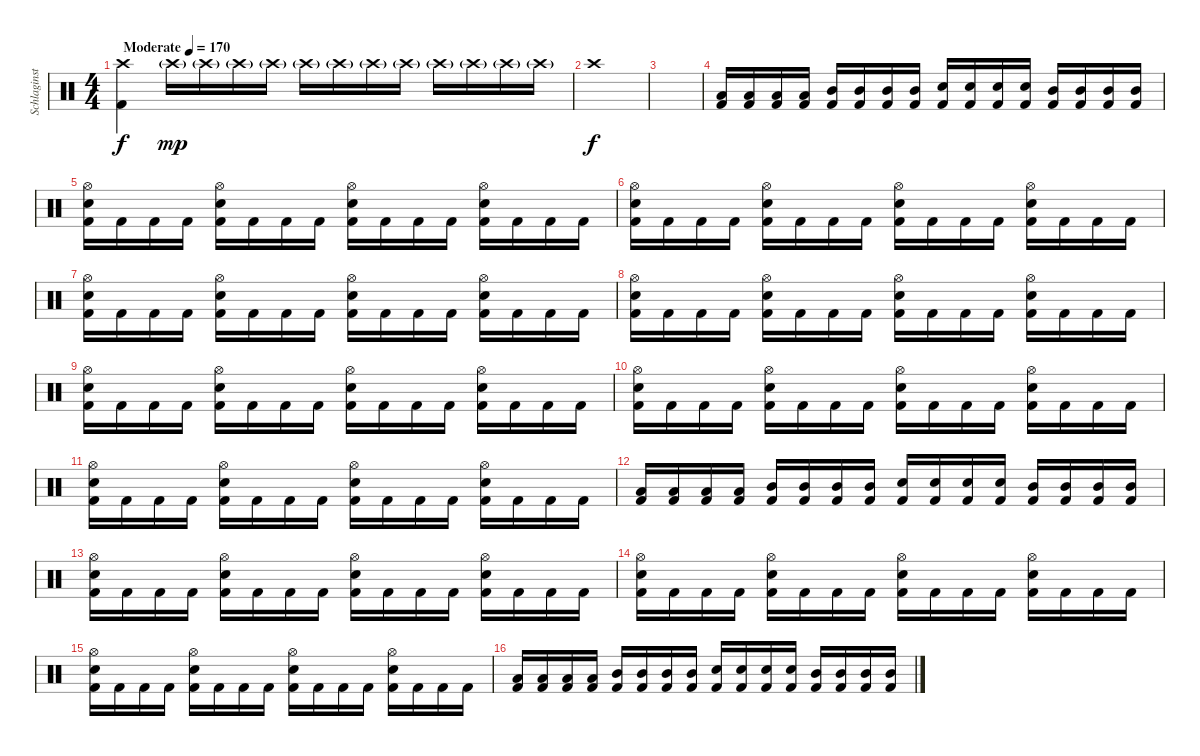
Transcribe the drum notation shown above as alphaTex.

\track ("Schlaginstrumente - Auswahl" "Schlaginst") {instrument percussion}
\staff {score}
\articulation defaults
\ts (4 4)
\tempo (170 "Moderate")
\clef neutral
\ks c
("Crash high (hit)" "Kick (hit) 2").4{dy f} "Crash high (hit)"{g}.16{dy mp} "Crash high (hit)"{g}.16 "Crash high (hit)"{g}.16 "Crash high (hit)"{g}.16 "Crash high (hit)"{g}.16 "Crash high (hit)"{g}.16 "Crash high (hit)"{g}.16 "Crash high (hit)"{g}.16 "Crash high (hit)"{g}.16 "Crash high (hit)"{g}.16 "Crash high (hit)"{g}.16 "Crash high (hit)"{g}.16 |
"Crash high (hit)".1{dy f} |
|
("Low Tom (hit)" "Kick (hit) 2").16 ("Low Tom (hit)" "Kick (hit) 2").16 ("Low Tom (hit)" "Kick (hit) 2").16 ("Low Tom (hit)" "Kick (hit) 2").16 ("Mid Tom (hit)" "Kick (hit) 2").16 ("Mid Tom (hit)" "Kick (hit) 2").16 ("Mid Tom (hit)" "Kick (hit) 2").16 ("Mid Tom (hit)" "Kick (hit) 2").16 ("Snare (hit) 2" "Kick (hit) 2").16 ("Snare (hit) 2" "Kick (hit) 2").16 ("Snare (hit) 2" "Kick (hit) 2").16 ("Snare (hit) 2" "Kick (hit) 2").16 ("Mid Tom (hit)" "Kick (hit) 2").16 ("Mid Tom (hit)" "Kick (hit) 2").16 ("Mid Tom (hit)" "Kick (hit) 2").16 ("Mid Tom (hit)" "Kick (hit) 2").16 |
("Hi-Hat (open)" "Snare (hit) 2" "Kick (hit) 2").16 "Kick (hit) 2".16 "Kick (hit) 2".16 "Kick (hit) 2".16 ("Hi-Hat (open)" "Snare (hit) 2" "Kick (hit) 2").16 "Kick (hit) 2".16 "Kick (hit) 2".16 "Kick (hit) 2".16 ("Hi-Hat (open)" "Snare (hit) 2" "Kick (hit) 2").16 "Kick (hit) 2".16 "Kick (hit) 2".16 "Kick (hit) 2".16 ("Hi-Hat (open)" "Snare (hit) 2" "Kick (hit) 2").16 "Kick (hit) 2".16 "Kick (hit) 2".16 "Kick (hit) 2".16 |
("Hi-Hat (open)" "Snare (hit) 2" "Kick (hit) 2").16 "Kick (hit) 2".16 "Kick (hit) 2".16 "Kick (hit) 2".16 ("Hi-Hat (open)" "Snare (hit) 2" "Kick (hit) 2").16 "Kick (hit) 2".16 "Kick (hit) 2".16 "Kick (hit) 2".16 ("Hi-Hat (open)" "Snare (hit) 2" "Kick (hit) 2").16 "Kick (hit) 2".16 "Kick (hit) 2".16 "Kick (hit) 2".16 ("Hi-Hat (open)" "Snare (hit) 2" "Kick (hit) 2").16 "Kick (hit) 2".16 "Kick (hit) 2".16 "Kick (hit) 2".16 |
("Hi-Hat (open)" "Snare (hit) 2" "Kick (hit) 2").16 "Kick (hit) 2".16 "Kick (hit) 2".16 "Kick (hit) 2".16 ("Hi-Hat (open)" "Snare (hit) 2" "Kick (hit) 2").16 "Kick (hit) 2".16 "Kick (hit) 2".16 "Kick (hit) 2".16 ("Hi-Hat (open)" "Snare (hit) 2" "Kick (hit) 2").16 "Kick (hit) 2".16 "Kick (hit) 2".16 "Kick (hit) 2".16 ("Hi-Hat (open)" "Snare (hit) 2" "Kick (hit) 2").16 "Kick (hit) 2".16 "Kick (hit) 2".16 "Kick (hit) 2".16 |
("Hi-Hat (open)" "Snare (hit) 2" "Kick (hit) 2").16 "Kick (hit) 2".16 "Kick (hit) 2".16 "Kick (hit) 2".16 ("Hi-Hat (open)" "Snare (hit) 2" "Kick (hit) 2").16 "Kick (hit) 2".16 "Kick (hit) 2".16 "Kick (hit) 2".16 ("Hi-Hat (open)" "Snare (hit) 2" "Kick (hit) 2").16 "Kick (hit) 2".16 "Kick (hit) 2".16 "Kick (hit) 2".16 ("Hi-Hat (open)" "Snare (hit) 2" "Kick (hit) 2").16 "Kick (hit) 2".16 "Kick (hit) 2".16 "Kick (hit) 2".16 |
("Hi-Hat (open)" "Snare (hit) 2" "Kick (hit) 2").16 "Kick (hit) 2".16 "Kick (hit) 2".16 "Kick (hit) 2".16 ("Hi-Hat (open)" "Snare (hit) 2" "Kick (hit) 2").16 "Kick (hit) 2".16 "Kick (hit) 2".16 "Kick (hit) 2".16 ("Hi-Hat (open)" "Snare (hit) 2" "Kick (hit) 2").16 "Kick (hit) 2".16 "Kick (hit) 2".16 "Kick (hit) 2".16 ("Hi-Hat (open)" "Snare (hit) 2" "Kick (hit) 2").16 "Kick (hit) 2".16 "Kick (hit) 2".16 "Kick (hit) 2".16 |
("Hi-Hat (open)" "Snare (hit) 2" "Kick (hit) 2").16 "Kick (hit) 2".16 "Kick (hit) 2".16 "Kick (hit) 2".16 ("Hi-Hat (open)" "Snare (hit) 2" "Kick (hit) 2").16 "Kick (hit) 2".16 "Kick (hit) 2".16 "Kick (hit) 2".16 ("Hi-Hat (open)" "Snare (hit) 2" "Kick (hit) 2").16 "Kick (hit) 2".16 "Kick (hit) 2".16 "Kick (hit) 2".16 ("Hi-Hat (open)" "Snare (hit) 2" "Kick (hit) 2").16 "Kick (hit) 2".16 "Kick (hit) 2".16 "Kick (hit) 2".16 |
("Hi-Hat (open)" "Snare (hit) 2" "Kick (hit) 2").16 "Kick (hit) 2".16 "Kick (hit) 2".16 "Kick (hit) 2".16 ("Hi-Hat (open)" "Snare (hit) 2" "Kick (hit) 2").16 "Kick (hit) 2".16 "Kick (hit) 2".16 "Kick (hit) 2".16 ("Hi-Hat (open)" "Snare (hit) 2" "Kick (hit) 2").16 "Kick (hit) 2".16 "Kick (hit) 2".16 "Kick (hit) 2".16 ("Hi-Hat (open)" "Snare (hit) 2" "Kick (hit) 2").16 "Kick (hit) 2".16 "Kick (hit) 2".16 "Kick (hit) 2".16 |
("Low Tom (hit)" "Kick (hit) 2").16 ("Low Tom (hit)" "Kick (hit) 2").16 ("Low Tom (hit)" "Kick (hit) 2").16 ("Low Tom (hit)" "Kick (hit) 2").16 ("Mid Tom (hit)" "Kick (hit) 2").16 ("Mid Tom (hit)" "Kick (hit) 2").16 ("Mid Tom (hit)" "Kick (hit) 2").16 ("Mid Tom (hit)" "Kick (hit) 2").16 ("Snare (hit) 2" "Kick (hit) 2").16 ("Snare (hit) 2" "Kick (hit) 2").16 ("Snare (hit) 2" "Kick (hit) 2").16 ("Snare (hit) 2" "Kick (hit) 2").16 ("Mid Tom (hit)" "Kick (hit) 2").16 ("Mid Tom (hit)" "Kick (hit) 2").16 ("Mid Tom (hit)" "Kick (hit) 2").16 ("Mid Tom (hit)" "Kick (hit) 2").16 |
("Hi-Hat (open)" "Snare (hit) 2" "Kick (hit) 2").16 "Kick (hit) 2".16 "Kick (hit) 2".16 "Kick (hit) 2".16 ("Hi-Hat (open)" "Snare (hit) 2" "Kick (hit) 2").16 "Kick (hit) 2".16 "Kick (hit) 2".16 "Kick (hit) 2".16 ("Hi-Hat (open)" "Snare (hit) 2" "Kick (hit) 2").16 "Kick (hit) 2".16 "Kick (hit) 2".16 "Kick (hit) 2".16 ("Hi-Hat (open)" "Snare (hit) 2" "Kick (hit) 2").16 "Kick (hit) 2".16 "Kick (hit) 2".16 "Kick (hit) 2".16 |
("Hi-Hat (open)" "Snare (hit) 2" "Kick (hit) 2").16 "Kick (hit) 2".16 "Kick (hit) 2".16 "Kick (hit) 2".16 ("Hi-Hat (open)" "Snare (hit) 2" "Kick (hit) 2").16 "Kick (hit) 2".16 "Kick (hit) 2".16 "Kick (hit) 2".16 ("Hi-Hat (open)" "Snare (hit) 2" "Kick (hit) 2").16 "Kick (hit) 2".16 "Kick (hit) 2".16 "Kick (hit) 2".16 ("Hi-Hat (open)" "Snare (hit) 2" "Kick (hit) 2").16 "Kick (hit) 2".16 "Kick (hit) 2".16 "Kick (hit) 2".16 |
("Hi-Hat (open)" "Snare (hit) 2" "Kick (hit) 2").16 "Kick (hit) 2".16 "Kick (hit) 2".16 "Kick (hit) 2".16 ("Hi-Hat (open)" "Snare (hit) 2" "Kick (hit) 2").16 "Kick (hit) 2".16 "Kick (hit) 2".16 "Kick (hit) 2".16 ("Hi-Hat (open)" "Snare (hit) 2" "Kick (hit) 2").16 "Kick (hit) 2".16 "Kick (hit) 2".16 "Kick (hit) 2".16 ("Hi-Hat (open)" "Snare (hit) 2" "Kick (hit) 2").16 "Kick (hit) 2".16 "Kick (hit) 2".16 "Kick (hit) 2".16 |
("Low Tom (hit)" "Kick (hit) 2").16 ("Low Tom (hit)" "Kick (hit) 2").16 ("Low Tom (hit)" "Kick (hit) 2").16 ("Low Tom (hit)" "Kick (hit) 2").16 ("Mid Tom (hit)" "Kick (hit) 2").16 ("Mid Tom (hit)" "Kick (hit) 2").16 ("Mid Tom (hit)" "Kick (hit) 2").16 ("Mid Tom (hit)" "Kick (hit) 2").16 ("Snare (hit) 2" "Kick (hit) 2").16 ("Snare (hit) 2" "Kick (hit) 2").16 ("Snare (hit) 2" "Kick (hit) 2").16 ("Snare (hit) 2" "Kick (hit) 2").16 ("Mid Tom (hit)" "Kick (hit) 2").16 ("Mid Tom (hit)" "Kick (hit) 2").16 ("Mid Tom (hit)" "Kick (hit) 2").16 ("Mid Tom (hit)" "Kick (hit) 2").16
